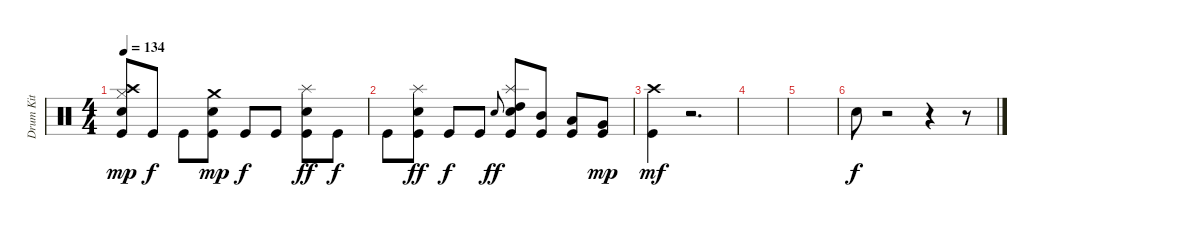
\track ("Drum Kit" "Drum Kit") {instrument percussion}
\staff {score}
\articulation defaults
\ts (4 4)
\tempo 134
\clef neutral
\ks c
("Electric Snare (hit)" "Crash high (hit)" "Hi-Hat (closed)" "Kick (hit)").8{dy mp} "Kick (hit)".8{dy f} "Kick (hit)".8 ("Electric Snare (hit)" "Kick (hit)" "Crash medium (hit)").8{dy mp} "Kick (hit)".8{dy f} "Kick (hit)".8 ("Splash (hit)" "Electric Snare (hit)" "Kick (hit)").8{dy ff} "Kick (hit)".8{dy f} |
"Kick (hit)".8 ("Splash (hit)" "Electric Snare (hit)" "Kick (hit)").8{dy ff} "Kick (hit)".8{dy f} "Kick (hit)".8 "Electric Snare (hit)".8{gr onbeat dy ff} ("Splash (hit)" "Electric Snare (hit)" "Kick (hit)" "High Tom (hit)").8 ("Mid Tom (hit)" "Kick (hit)").8 ("Kick (hit)" "Low Tom (hit)").8 ("Very Low Tom (hit)" "Kick (hit)").8{dy mp} |
("Crash high (hit)" "Kick (hit)").4{dy mf} r.2{d} |
|
|
"Metronome (bell)".8{dy f} r.2 r.4 r.8
